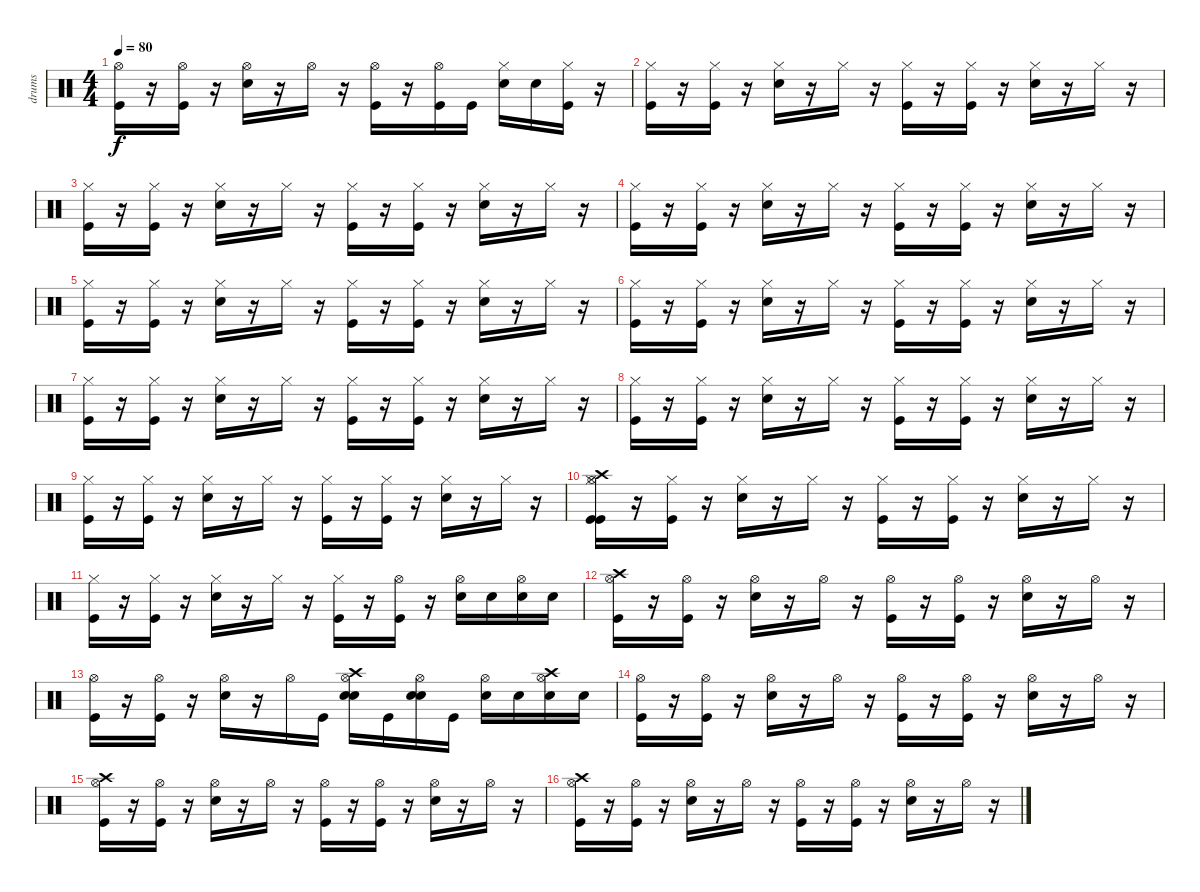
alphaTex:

\track ("drums" "drums") {instrument percussion}
\staff {score}
\articulation defaults
\ts (4 4)
\tempo 80
\clef neutral
\ks c
("Hi-Hat (open)" "Kick (hit)").16{dy f} r.16 ("Hi-Hat (open)" "Kick (hit)").16 r.16 ("Hi-Hat (open)" "Electric Snare (hit)").16 r.16 "Hi-Hat (open)".16 r.16 ("Hi-Hat (open)" "Kick (hit)").16 r.16 ("Kick (hit)" "Hi-Hat (open)").16 "Kick (hit)".16 ("Hi-Hat (closed)" "Electric Snare (hit)").16 "Electric Snare (hit)".16 ("Hi-Hat (closed)" "Kick (hit)").16 r.16 |
("Kick (hit)" "Hi-Hat (closed)").16 r.16 ("Hi-Hat (closed)" "Kick (hit)").16 r.16 ("Hi-Hat (closed)" "Electric Snare (hit)").16 r.16 "Hi-Hat (closed)".16 r.16 ("Kick (hit)" "Hi-Hat (closed)").16 r.16 ("Hi-Hat (closed)" "Kick (hit)").16 r.16 ("Hi-Hat (closed)" "Electric Snare (hit)").16 r.16 "Hi-Hat (closed)".16 r.16 |
("Kick (hit)" "Hi-Hat (closed)").16 r.16 ("Hi-Hat (closed)" "Kick (hit)").16 r.16 ("Hi-Hat (closed)" "Electric Snare (hit)").16 r.16 "Hi-Hat (closed)".16 r.16 ("Kick (hit)" "Hi-Hat (closed)").16 r.16 ("Hi-Hat (closed)" "Kick (hit)").16 r.16 ("Hi-Hat (closed)" "Electric Snare (hit)").16 r.16 "Hi-Hat (closed)".16 r.16 |
("Kick (hit)" "Hi-Hat (closed)").16 r.16 ("Hi-Hat (closed)" "Kick (hit)").16 r.16 ("Hi-Hat (closed)" "Electric Snare (hit)").16 r.16 "Hi-Hat (closed)".16 r.16 ("Kick (hit)" "Hi-Hat (closed)").16 r.16 ("Hi-Hat (closed)" "Kick (hit)").16 r.16 ("Hi-Hat (closed)" "Electric Snare (hit)").16 r.16 "Hi-Hat (closed)".16 r.16 |
("Kick (hit)" "Hi-Hat (closed)").16 r.16 ("Hi-Hat (closed)" "Kick (hit)").16 r.16 ("Hi-Hat (closed)" "Electric Snare (hit)").16 r.16 "Hi-Hat (closed)".16 r.16 ("Kick (hit)" "Hi-Hat (closed)").16 r.16 ("Hi-Hat (closed)" "Kick (hit)").16 r.16 ("Hi-Hat (closed)" "Electric Snare (hit)").16 r.16 "Hi-Hat (closed)".16 r.16 |
("Kick (hit)" "Hi-Hat (closed)").16 r.16 ("Hi-Hat (closed)" "Kick (hit)").16 r.16 ("Hi-Hat (closed)" "Electric Snare (hit)").16 r.16 "Hi-Hat (closed)".16 r.16 ("Kick (hit)" "Hi-Hat (closed)").16 r.16 ("Hi-Hat (closed)" "Kick (hit)").16 r.16 ("Hi-Hat (closed)" "Electric Snare (hit)").16 r.16 "Hi-Hat (closed)".16 r.16 |
("Kick (hit)" "Hi-Hat (closed)").16 r.16 ("Hi-Hat (closed)" "Kick (hit)").16 r.16 ("Hi-Hat (closed)" "Electric Snare (hit)").16 r.16 "Hi-Hat (closed)".16 r.16 ("Kick (hit)" "Hi-Hat (closed)").16 r.16 ("Hi-Hat (closed)" "Kick (hit)").16 r.16 ("Hi-Hat (closed)" "Electric Snare (hit)").16 r.16 "Hi-Hat (closed)".16 r.16 |
("Kick (hit)" "Hi-Hat (closed)").16 r.16 ("Hi-Hat (closed)" "Kick (hit)").16 r.16 ("Hi-Hat (closed)" "Electric Snare (hit)").16 r.16 "Hi-Hat (closed)".16 r.16 ("Kick (hit)" "Hi-Hat (closed)").16 r.16 ("Hi-Hat (closed)" "Kick (hit)").16 r.16 ("Hi-Hat (closed)" "Electric Snare (hit)").16 r.16 "Hi-Hat (closed)".16 r.16 |
("Kick (hit)" "Hi-Hat (closed)").16 r.16 ("Hi-Hat (closed)" "Kick (hit)").16 r.16 ("Hi-Hat (closed)" "Electric Snare (hit)").16 r.16 "Hi-Hat (closed)".16 r.16 ("Hi-Hat (closed)" "Kick (hit)").16 r.16 ("Kick (hit)" "Hi-Hat (closed)").16 r.16 ("Hi-Hat (closed)" "Electric Snare (hit)").16 r.16 "Hi-Hat (closed)".16 r.16 |
("Hi-Hat (open)" "Kick (hit)" "Crash high (hit)" "Kick (hit)" "Hi-Hat (closed)").16 r.16 ("Hi-Hat (closed)" "Kick (hit)").16 r.16 ("Hi-Hat (closed)" "Electric Snare (hit)").16 r.16 "Hi-Hat (closed)".16 r.16 ("Kick (hit)" "Hi-Hat (closed)").16 r.16 ("Hi-Hat (closed)" "Kick (hit)").16 r.16 ("Hi-Hat (closed)" "Electric Snare (hit)").16 r.16 "Hi-Hat (closed)".16 r.16 |
("Kick (hit)" "Hi-Hat (closed)").16 r.16 ("Hi-Hat (closed)" "Kick (hit)").16 r.16 ("Hi-Hat (closed)" "Electric Snare (hit)").16 r.16 "Hi-Hat (closed)".16 r.16 ("Kick (hit)" "Hi-Hat (closed)").16 r.16 ("Hi-Hat (open)" "Kick (hit)").16 r.16 ("Hi-Hat (open)" "Electric Snare (hit)").16 "Electric Snare (hit)".16 ("Hi-Hat (open)" "Electric Snare (hit)").16 "Electric Snare (hit)".16 |
("Hi-Hat (open)" "Kick (hit)" "Crash high (hit)").16 r.16 ("Hi-Hat (open)" "Kick (hit)").16 r.16 ("Electric Snare (hit)" "Hi-Hat (open)").16 r.16 "Hi-Hat (open)".16 r.16 ("Kick (hit)" "Hi-Hat (open)").16 r.16 ("Hi-Hat (open)" "Kick (hit)").16 r.16 ("Electric Snare (hit)" "Hi-Hat (open)").16 r.16 "Hi-Hat (open)".16 r.16 |
("Hi-Hat (open)" "Kick (hit)").16 r.16 ("Hi-Hat (open)" "Kick (hit)").16 r.16 ("Electric Snare (hit)" "Hi-Hat (open)").16 r.16 "Hi-Hat (open)".16 "Kick (hit)".16 ("Hi-Hat (open)" "Crash high (hit)" "Electric Snare (hit)" "Snare (hit) 2").16 "Kick (hit)".16 ("Hi-Hat (open)" "Electric Snare (hit)" "Snare (hit) 2").16 "Kick (hit)".16 ("Electric Snare (hit)" "Hi-Hat (open)").16 "Electric Snare (hit)".16 ("Electric Snare (hit)" "Hi-Hat (open)" "Crash high (hit)").16 "Electric Snare (hit)".16 |
("Hi-Hat (open)" "Kick (hit)").16 r.16 ("Hi-Hat (open)" "Kick (hit)").16 r.16 ("Electric Snare (hit)" "Hi-Hat (open)").16 r.16 "Hi-Hat (open)".16 r.16 ("Kick (hit)" "Hi-Hat (open)").16 r.16 ("Hi-Hat (open)" "Kick (hit)").16 r.16 ("Electric Snare (hit)" "Hi-Hat (open)").16 r.16 "Hi-Hat (open)".16 r.16 |
("Hi-Hat (open)" "Kick (hit)" "Crash high (hit)").16 r.16 ("Hi-Hat (open)" "Kick (hit)").16 r.16 ("Electric Snare (hit)" "Hi-Hat (open)").16 r.16 "Hi-Hat (open)".16 r.16 ("Kick (hit)" "Hi-Hat (open)").16 r.16 ("Hi-Hat (open)" "Kick (hit)").16 r.16 ("Electric Snare (hit)" "Hi-Hat (open)").16 r.16 "Hi-Hat (open)".16 r.16 |
("Hi-Hat (open)" "Kick (hit)" "Crash high (hit)").16 r.16 ("Hi-Hat (open)" "Kick (hit)").16 r.16 ("Electric Snare (hit)" "Hi-Hat (open)").16 r.16 "Hi-Hat (open)".16 r.16 ("Kick (hit)" "Hi-Hat (open)").16 r.16 ("Hi-Hat (open)" "Kick (hit)").16 r.16 ("Electric Snare (hit)" "Hi-Hat (open)").16 r.16 "Hi-Hat (open)".16 r.16
